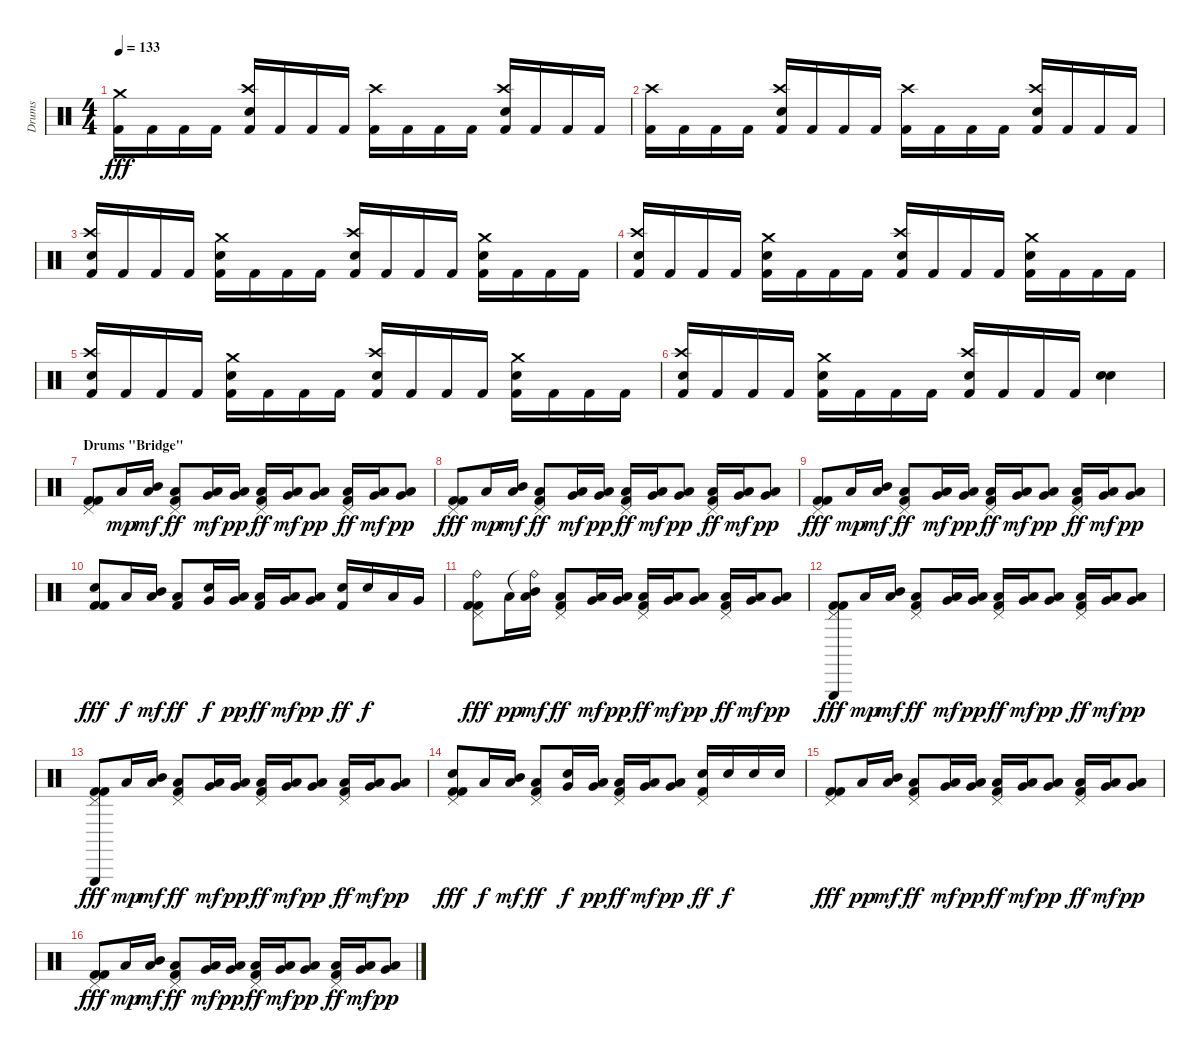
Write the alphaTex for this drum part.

\track ("Drums" "Drums") {instrument percussion}
\staff {score}
\articulation defaults
\ts (4 4)
\tempo 133
\clef neutral
\ks c
("Crash medium (hit)" "Kick (hit) 2").16{dy fff} "Kick (hit) 2".16 "Kick (hit) 2".16 "Kick (hit) 2".16 ("Crash high (hit)" "Snare (hit) 2" "Kick (hit) 2").16 "Kick (hit) 2".16 "Kick (hit) 2".16 "Kick (hit) 2".16 ("Crash high (hit)" "Kick (hit) 2").16 "Kick (hit) 2".16 "Kick (hit) 2".16 "Kick (hit) 2".16 ("Crash high (hit)" "Snare (hit) 2" "Kick (hit) 2").16 "Kick (hit) 2".16 "Kick (hit) 2".16 "Kick (hit) 2".16 |
("Crash high (hit)" "Kick (hit) 2").16 "Kick (hit) 2".16 "Kick (hit) 2".16 "Kick (hit) 2".16 ("Crash high (hit)" "Snare (hit) 2" "Kick (hit) 2").16 "Kick (hit) 2".16 "Kick (hit) 2".16 "Kick (hit) 2".16 ("Crash high (hit)" "Kick (hit) 2").16 "Kick (hit) 2".16 "Kick (hit) 2".16 "Kick (hit) 2".16 ("Crash high (hit)" "Snare (hit) 2" "Kick (hit) 2").16 "Kick (hit) 2".16 "Kick (hit) 2".16 "Kick (hit) 2".16 |
("Crash high (hit)" "Snare (hit) 2" "Kick (hit) 2").16 "Kick (hit) 2".16 "Kick (hit) 2".16 "Kick (hit) 2".16 ("Crash medium (hit)" "Snare (hit) 2" "Kick (hit) 2").16 "Kick (hit) 2".16 "Kick (hit) 2".16 "Kick (hit) 2".16 ("Crash high (hit)" "Snare (hit) 2" "Kick (hit) 2").16 "Kick (hit) 2".16 "Kick (hit) 2".16 "Kick (hit) 2".16 ("Crash medium (hit)" "Snare (hit) 2" "Kick (hit) 2").16 "Kick (hit) 2".16 "Kick (hit) 2".16 "Kick (hit) 2".16 |
("Crash high (hit)" "Snare (hit) 2" "Kick (hit) 2").16 "Kick (hit) 2".16 "Kick (hit) 2".16 "Kick (hit) 2".16 ("Crash medium (hit)" "Snare (hit) 2" "Kick (hit) 2").16 "Kick (hit) 2".16 "Kick (hit) 2".16 "Kick (hit) 2".16 ("Crash high (hit)" "Snare (hit) 2" "Kick (hit) 2").16 "Kick (hit) 2".16 "Kick (hit) 2".16 "Kick (hit) 2".16 ("Crash medium (hit)" "Snare (hit) 2" "Kick (hit) 2").16 "Kick (hit) 2".16 "Kick (hit) 2".16 "Kick (hit) 2".16 |
("Crash high (hit)" "Snare (hit) 2" "Kick (hit) 2").16 "Kick (hit) 2".16 "Kick (hit) 2".16 "Kick (hit) 2".16 ("Crash medium (hit)" "Snare (hit) 2" "Kick (hit) 2").16 "Kick (hit) 2".16 "Kick (hit) 2".16 "Kick (hit) 2".16 ("Crash high (hit)" "Snare (hit) 2" "Kick (hit) 2").16 "Kick (hit) 2".16 "Kick (hit) 2".16 "Kick (hit) 2".16 ("Crash medium (hit)" "Snare (hit) 2" "Kick (hit) 2").16 "Kick (hit) 2".16 "Kick (hit) 2".16 "Kick (hit) 2".16 |
("Crash high (hit)" "Snare (hit) 2" "Kick (hit) 2").16 "Kick (hit) 2".16 "Kick (hit) 2".16 "Kick (hit) 2".16 ("Crash medium (hit)" "Snare (hit) 2" "Kick (hit) 2").16 "Kick (hit) 2".16 "Kick (hit) 2".16 "Kick (hit) 2".16 ("Crash high (hit)" "Snare (hit) 2" "Kick (hit) 2").16 "Kick (hit) 2".16 "Kick (hit) 2".16 "Kick (hit) 2".16 ("Snare (hit) 2" "Snare (hit) 2").4{bd 240} |
\section ("" "Drums \"Bridge\"")
("Pedal Hi-Hat (hit)" "Kick (hit) 2" "Kick (hit) 2").8 "Low Tom (hit)".16{dy mp} ("Mid Tom (hit)" "Low Tom (hit)").16{dy mf} ("Pedal Hi-Hat (hit)" "Low Tom (hit)" "Kick (hit) 2").8{dy ff} ("Low Tom (hit)" "Very Low Tom (hit)").16{dy mf} ("Low Tom (hit)" "Very Low Tom (hit)").16{dy pp} ("Pedal Hi-Hat (hit)" "Low Tom (hit)" "Kick (hit) 2").16{dy ff} ("Low Tom (hit)" "Very Low Tom (hit)").16{dy mf} ("Low Tom (hit)" "Very Low Tom (hit)").8{dy pp} ("Pedal Hi-Hat (hit)" "Low Tom (hit)" "Kick (hit) 2").16{dy ff} ("Low Tom (hit)" "Very Low Tom (hit)").16{dy mf} ("Low Tom (hit)" "Very Low Tom (hit)").8{dy pp} |
("Pedal Hi-Hat (hit)" "Kick (hit) 2" "Kick (hit) 2").8{dy fff} "Low Tom (hit)".16{dy mp} ("Mid Tom (hit)" "Low Tom (hit)").16{dy mf} ("Pedal Hi-Hat (hit)" "Low Tom (hit)" "Kick (hit) 2").8{dy ff} ("Low Tom (hit)" "Very Low Tom (hit)").16{dy mf} ("Low Tom (hit)" "Very Low Tom (hit)").16{dy pp} ("Pedal Hi-Hat (hit)" "Low Tom (hit)" "Kick (hit) 2").16{dy ff} ("Low Tom (hit)" "Very Low Tom (hit)").16{dy mf} ("Low Tom (hit)" "Very Low Tom (hit)").8{dy pp} ("Pedal Hi-Hat (hit)" "Low Tom (hit)" "Kick (hit) 2").16{dy ff} ("Low Tom (hit)" "Very Low Tom (hit)").16{dy mf} ("Low Tom (hit)" "Very Low Tom (hit)").8{dy pp} |
("Pedal Hi-Hat (hit)" "Kick (hit) 2" "Kick (hit) 2").8{dy fff} "Low Tom (hit)".16{dy mp} ("Mid Tom (hit)" "Low Tom (hit)").16{dy mf} ("Pedal Hi-Hat (hit)" "Low Tom (hit)" "Kick (hit) 2").8{dy ff} ("Low Tom (hit)" "Very Low Tom (hit)").16{dy mf} ("Low Tom (hit)" "Very Low Tom (hit)").16{dy pp} ("Pedal Hi-Hat (hit)" "Low Tom (hit)" "Kick (hit) 2").16{dy ff} ("Low Tom (hit)" "Very Low Tom (hit)").16{dy mf} ("Low Tom (hit)" "Very Low Tom (hit)").8{dy pp} ("Pedal Hi-Hat (hit)" "Low Tom (hit)" "Kick (hit) 2").16{dy ff} ("Low Tom (hit)" "Very Low Tom (hit)").16{dy mf} ("Low Tom (hit)" "Very Low Tom (hit)").8{dy pp} |
("Electric Snare (hit)" "Kick (hit) 2" "Kick (hit) 2").8{dy fff} "Low Tom (hit)".16{dy f} ("Mid Tom (hit)" "Low Tom (hit)").16{dy mf} ("Low Tom (hit)" "Kick (hit) 2").8{dy ff} ("Electric Snare (hit)" "Very Low Tom (hit)").16{dy f} ("Low Tom (hit)" "Very Low Tom (hit)").16{dy pp} ("Low Tom (hit)" "Kick (hit) 2").16{dy ff} ("Low Tom (hit)" "Very Low Tom (hit)").16{dy mf} ("Low Tom (hit)" "Very Low Tom (hit)").8{dy pp} ("Electric Snare (hit)" "Kick (hit) 2").16{dy ff} "Electric Snare (hit)".16{dy f} "Low Tom (hit)".16 "Very Low Tom (hit)".16 |
("Ride (bell)" "Pedal Hi-Hat (hit)" "Kick (hit) 2" "Kick (hit) 2").8{dy fff} "Low Tom (hit)".16{dy pp} ("Ride (bell)"{t} "Mid Tom (hit)" "Low Tom (hit)").16{dy mf} ("Pedal Hi-Hat (hit)" "Low Tom (hit)" "Kick (hit) 2").8{dy ff} ("Low Tom (hit)" "Very Low Tom (hit)").16{dy mf} ("Low Tom (hit)" "Very Low Tom (hit)").16{dy pp} ("Pedal Hi-Hat (hit)" "Low Tom (hit)" "Kick (hit) 2").16{dy ff} ("Low Tom (hit)" "Very Low Tom (hit)").16{dy mf} ("Low Tom (hit)" "Very Low Tom (hit)").8{dy pp} ("Pedal Hi-Hat (hit)" "Low Tom (hit)" "Kick (hit) 2").16{dy ff} ("Low Tom (hit)" "Very Low Tom (hit)").16{dy mf} ("Low Tom (hit)" "Very Low Tom (hit)").8{dy pp} |
("Pedal Hi-Hat (hit)" "Triangle (hit)" "Kick (hit) 2" "Kick (hit) 2").8{dy fff} "Low Tom (hit)".16{dy mp} ("Mid Tom (hit)" "Low Tom (hit)").16{dy mf} ("Pedal Hi-Hat (hit)" "Low Tom (hit)" "Kick (hit) 2").8{dy ff} ("Low Tom (hit)" "Very Low Tom (hit)").16{dy mf} ("Low Tom (hit)" "Very Low Tom (hit)").16{dy pp} ("Pedal Hi-Hat (hit)" "Low Tom (hit)" "Kick (hit) 2").16{dy ff} ("Low Tom (hit)" "Very Low Tom (hit)").16{dy mf} ("Low Tom (hit)" "Very Low Tom (hit)").8{dy pp} ("Pedal Hi-Hat (hit)" "Low Tom (hit)" "Kick (hit) 2").16{dy ff} ("Low Tom (hit)" "Very Low Tom (hit)").16{dy mf} ("Low Tom (hit)" "Very Low Tom (hit)").8{dy pp} |
("Pedal Hi-Hat (hit)" "Triangle (hit)" "Kick (hit) 2" "Kick (hit) 2").8{dy fff} "Low Tom (hit)".16{dy mp} ("Mid Tom (hit)" "Low Tom (hit)").16{dy mf} ("Pedal Hi-Hat (hit)" "Low Tom (hit)" "Kick (hit) 2").8{dy ff} ("Low Tom (hit)" "Very Low Tom (hit)").16{dy mf} ("Low Tom (hit)" "Very Low Tom (hit)").16{dy pp} ("Pedal Hi-Hat (hit)" "Low Tom (hit)" "Kick (hit) 2").16{dy ff} ("Low Tom (hit)" "Very Low Tom (hit)").16{dy mf} ("Low Tom (hit)" "Very Low Tom (hit)").8{dy pp} ("Pedal Hi-Hat (hit)" "Low Tom (hit)" "Kick (hit) 2").16{dy ff} ("Low Tom (hit)" "Very Low Tom (hit)").16{dy mf} ("Low Tom (hit)" "Very Low Tom (hit)").8{dy pp} |
("Pedal Hi-Hat (hit)" "Electric Snare (hit)" "Kick (hit) 2" "Kick (hit) 2").8{dy fff} "Low Tom (hit)".16{dy f} ("Mid Tom (hit)" "Low Tom (hit)").16{dy mf} ("Pedal Hi-Hat (hit)" "Low Tom (hit)" "Kick (hit) 2").8{dy ff} ("Electric Snare (hit)" "Very Low Tom (hit)").16{dy f} ("Low Tom (hit)" "Very Low Tom (hit)").16{dy pp} ("Pedal Hi-Hat (hit)" "Low Tom (hit)" "Kick (hit) 2").16{dy ff} ("Low Tom (hit)" "Very Low Tom (hit)").16{dy mf} ("Low Tom (hit)" "Very Low Tom (hit)").8{dy pp} ("Pedal Hi-Hat (hit)" "Electric Snare (hit)" "Kick (hit) 2").16{dy ff} "Electric Snare (hit)".16{dy f} "Electric Snare (hit)".16 "Electric Snare (hit)".16 |
("Pedal Hi-Hat (hit)" "Kick (hit) 2" "Kick (hit) 2").8{dy fff} "Low Tom (hit)".16{dy pp} ("Mid Tom (hit)" "Low Tom (hit)").16{dy mf} ("Pedal Hi-Hat (hit)" "Low Tom (hit)" "Kick (hit) 2").8{dy ff} ("Low Tom (hit)" "Very Low Tom (hit)").16{dy mf} ("Low Tom (hit)" "Very Low Tom (hit)").16{dy pp} ("Pedal Hi-Hat (hit)" "Low Tom (hit)" "Kick (hit) 2").16{dy ff} ("Low Tom (hit)" "Very Low Tom (hit)").16{dy mf} ("Low Tom (hit)" "Very Low Tom (hit)").8{dy pp} ("Pedal Hi-Hat (hit)" "Low Tom (hit)" "Kick (hit) 2").16{dy ff} ("Low Tom (hit)" "Very Low Tom (hit)").16{dy mf} ("Low Tom (hit)" "Very Low Tom (hit)").8{dy pp} |
("Pedal Hi-Hat (hit)" "Kick (hit) 2" "Kick (hit) 2").8{dy fff} "Low Tom (hit)".16{dy mp} ("Mid Tom (hit)" "Low Tom (hit)").16{dy mf} ("Pedal Hi-Hat (hit)" "Low Tom (hit)" "Kick (hit) 2").8{dy ff} ("Low Tom (hit)" "Very Low Tom (hit)").16{dy mf} ("Low Tom (hit)" "Very Low Tom (hit)").16{dy pp} ("Pedal Hi-Hat (hit)" "Low Tom (hit)" "Kick (hit) 2").16{dy ff} ("Low Tom (hit)" "Very Low Tom (hit)").16{dy mf} ("Low Tom (hit)" "Very Low Tom (hit)").8{dy pp} ("Pedal Hi-Hat (hit)" "Low Tom (hit)" "Kick (hit) 2").16{dy ff} ("Low Tom (hit)" "Very Low Tom (hit)").16{dy mf} ("Low Tom (hit)" "Very Low Tom (hit)").8{dy pp}
